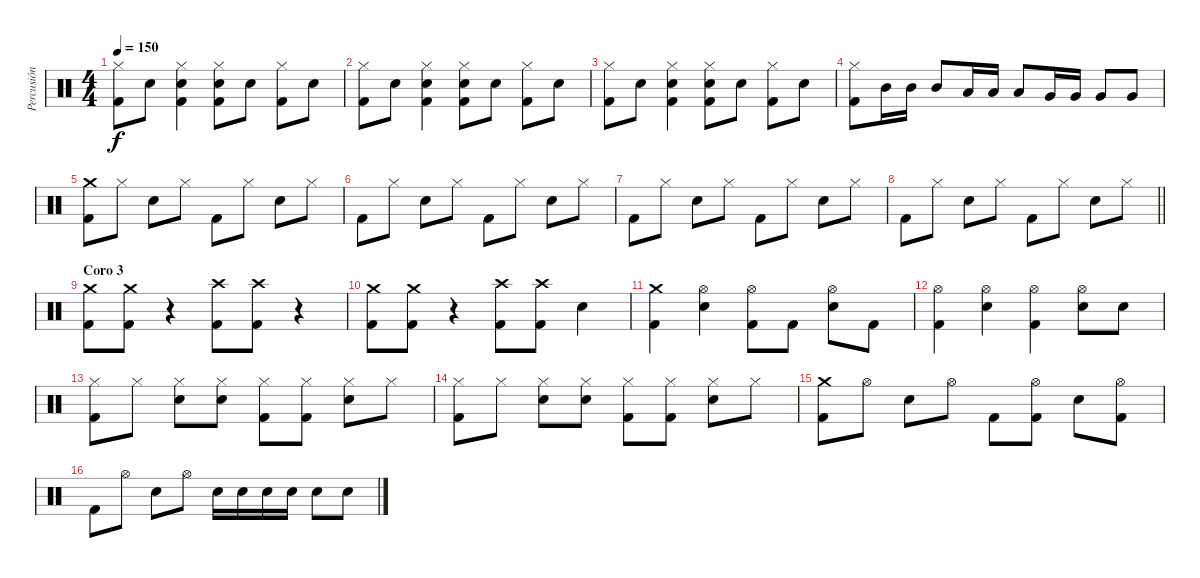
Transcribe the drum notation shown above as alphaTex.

\track ("Percusión" "Percusión") {instrument percussion}
\staff {score}
\articulation defaults
\ts (4 4)
\tempo 150
\clef neutral
\ks c
("Hi-Hat (closed)" "Kick (hit) 2").8{dy f} "Electric Snare (hit)".8 ("Hi-Hat (closed)" "Electric Snare (hit)" "Kick (hit) 2").4 ("Hi-Hat (closed)" "Electric Snare (hit)" "Kick (hit) 2").8 "Electric Snare (hit)".8 ("Hi-Hat (closed)" "Kick (hit) 2").8 "Electric Snare (hit)".8 |
("Hi-Hat (closed)" "Kick (hit) 2").8 "Electric Snare (hit)".8 ("Hi-Hat (closed)" "Electric Snare (hit)" "Kick (hit) 2").4 ("Hi-Hat (closed)" "Electric Snare (hit)" "Kick (hit) 2").8 "Electric Snare (hit)".8 ("Hi-Hat (closed)" "Kick (hit) 2").8 "Electric Snare (hit)".8 |
("Hi-Hat (closed)" "Kick (hit) 2").8 "Electric Snare (hit)".8 ("Hi-Hat (closed)" "Electric Snare (hit)" "Kick (hit) 2").4 ("Hi-Hat (closed)" "Electric Snare (hit)" "Kick (hit) 2").8 "Electric Snare (hit)".8 ("Hi-Hat (closed)" "Kick (hit) 2").8 "Electric Snare (hit)".8 |
("Hi-Hat (closed)" "Kick (hit) 2").8 "Mid Tom (hit)".16 "Mid Tom (hit)".16 "Mid Tom (hit)".8 "Low Tom (hit)".16 "Low Tom (hit)".16 "Low Tom (hit)".8 "Very Low Tom (hit)".16 "Very Low Tom (hit)".16 "Very Low Tom (hit)".8 "Very Low Tom (hit)".8 |
("Crash medium (hit)" "Kick (hit) 2").8 "Hi-Hat (closed)".8 "Electric Snare (hit)".8 "Hi-Hat (closed)".8 "Kick (hit) 2".8 "Hi-Hat (closed)".8 "Electric Snare (hit)".8 "Hi-Hat (closed)".8 |
"Kick (hit) 2".8 "Hi-Hat (closed)".8 "Electric Snare (hit)".8 "Hi-Hat (closed)".8 "Kick (hit) 2".8 "Hi-Hat (closed)".8 "Electric Snare (hit)".8 "Hi-Hat (closed)".8 |
"Kick (hit) 2".8 "Hi-Hat (closed)".8 "Electric Snare (hit)".8 "Hi-Hat (closed)".8 "Kick (hit) 2".8 "Hi-Hat (closed)".8 "Electric Snare (hit)".8 "Hi-Hat (closed)".8 |
\barLineRight lightlight "Kick (hit) 2".8 "Hi-Hat (closed)".8 "Electric Snare (hit)".8 "Hi-Hat (closed)".8 "Kick (hit) 2".8 "Hi-Hat (closed)".8 "Electric Snare (hit)".8 "Hi-Hat (closed)".8
|
\section ("" "Coro 3")
("Crash medium (hit)" "Kick (hit) 2").8 ("Crash medium (hit)" "Kick (hit) 2").8 r.4 ("Crash high (hit)" "Kick (hit) 2").8 ("Crash high (hit)" "Kick (hit) 2").8 r.4 |
("Crash medium (hit)" "Kick (hit) 2").8 ("Crash medium (hit)" "Kick (hit) 2").8 r.4 ("Crash high (hit)" "Kick (hit) 2").8 ("Crash high (hit)" "Kick (hit) 2").8 "Electric Snare (hit)".4 |
("Crash medium (hit)" "Kick (hit) 2").4 ("Hi-Hat (open)" "Electric Snare (hit)").4 ("Hi-Hat (open)" "Kick (hit) 2").8 "Kick (hit) 2".8 ("Hi-Hat (open)" "Electric Snare (hit)").8 "Kick (hit) 2".8 |
("Hi-Hat (open)" "Kick (hit) 2").4 ("Hi-Hat (open)" "Electric Snare (hit)").4 ("Hi-Hat (open)" "Kick (hit) 2").4 ("Hi-Hat (open)" "Electric Snare (hit)").8 "Electric Snare (hit)".8 |
("Hi-Hat (closed)" "Kick (hit) 2").8 "Hi-Hat (closed)".8 ("Hi-Hat (closed)" "Electric Snare (hit)").8 ("Hi-Hat (closed)" "Electric Snare (hit)").8 ("Hi-Hat (closed)" "Kick (hit) 2").8 ("Hi-Hat (closed)" "Kick (hit) 2").8 ("Hi-Hat (closed)" "Electric Snare (hit)").8 "Hi-Hat (closed)".8 |
("Hi-Hat (closed)" "Kick (hit) 2").8 "Hi-Hat (closed)".8 ("Hi-Hat (closed)" "Electric Snare (hit)").8 ("Hi-Hat (closed)" "Electric Snare (hit)").8 ("Hi-Hat (closed)" "Kick (hit) 2").8 ("Hi-Hat (closed)" "Kick (hit) 2").8 ("Hi-Hat (closed)" "Electric Snare (hit)").8 "Hi-Hat (closed)".8 |
("Crash medium (hit)" "Kick (hit) 2").8 "Hi-Hat (open)".8 "Electric Snare (hit)".8 "Hi-Hat (open)".8 "Kick (hit) 2".8 ("Hi-Hat (open)" "Kick (hit) 2").8 "Electric Snare (hit)".8 ("Hi-Hat (open)" "Kick (hit) 2").8 |
"Kick (hit) 2".8 "Hi-Hat (open)".8 "Electric Snare (hit)".8 "Hi-Hat (open)".8 "Electric Snare (hit)".16 "Electric Snare (hit)".16 "Electric Snare (hit)".16 "Electric Snare (hit)".16 "Electric Snare (hit)".8 "Electric Snare (hit)".8
